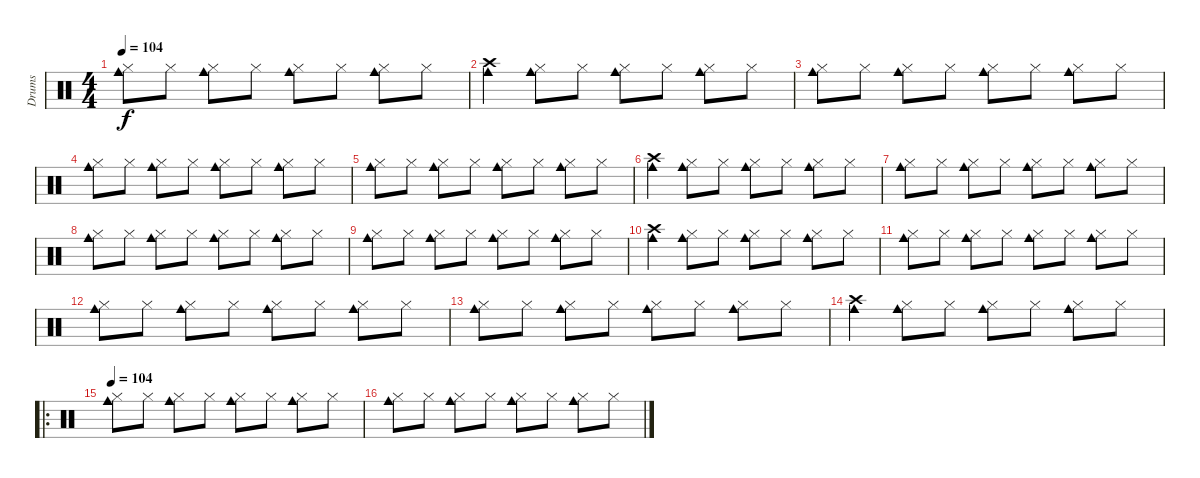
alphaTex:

\track ("Drums" "Drums") {instrument percussion}
\staff {score}
\articulation defaults
\ts (4 4)
\tempo 104
\clef neutral
\ks c
("Cowbell medium (hit)" "Hi-Hat (closed)").8{dy f} "Hi-Hat (closed)".8 ("Cowbell medium (hit)" "Hi-Hat (closed)").8 "Hi-Hat (closed)".8 ("Cowbell medium (hit)" "Hi-Hat (closed)").8 "Hi-Hat (closed)".8 ("Cowbell medium (hit)" "Hi-Hat (closed)").8 "Hi-Hat (closed)".8 |
("Cowbell medium (hit)" "Crash high (hit)").4 ("Cowbell medium (hit)" "Hi-Hat (closed)").8 "Hi-Hat (closed)".8 ("Cowbell medium (hit)" "Hi-Hat (closed)").8 "Hi-Hat (closed)".8 ("Cowbell medium (hit)" "Hi-Hat (closed)").8 "Hi-Hat (closed)".8 |
("Cowbell medium (hit)" "Hi-Hat (closed)").8 "Hi-Hat (closed)".8 ("Cowbell medium (hit)" "Hi-Hat (closed)").8 "Hi-Hat (closed)".8 ("Cowbell medium (hit)" "Hi-Hat (closed)").8 "Hi-Hat (closed)".8 ("Cowbell medium (hit)" "Hi-Hat (closed)").8 "Hi-Hat (closed)".8 |
("Cowbell medium (hit)" "Hi-Hat (closed)").8 "Hi-Hat (closed)".8 ("Cowbell medium (hit)" "Hi-Hat (closed)").8 "Hi-Hat (closed)".8 ("Cowbell medium (hit)" "Hi-Hat (closed)").8 "Hi-Hat (closed)".8 ("Cowbell medium (hit)" "Hi-Hat (closed)").8 "Hi-Hat (closed)".8 |
("Cowbell medium (hit)" "Hi-Hat (closed)").8 "Hi-Hat (closed)".8 ("Cowbell medium (hit)" "Hi-Hat (closed)").8 "Hi-Hat (closed)".8 ("Cowbell medium (hit)" "Hi-Hat (closed)").8 "Hi-Hat (closed)".8 ("Cowbell medium (hit)" "Hi-Hat (closed)").8 "Hi-Hat (closed)".8 |
("Cowbell medium (hit)" "Crash high (hit)").4 ("Cowbell medium (hit)" "Hi-Hat (closed)").8 "Hi-Hat (closed)".8 ("Cowbell medium (hit)" "Hi-Hat (closed)").8 "Hi-Hat (closed)".8 ("Cowbell medium (hit)" "Hi-Hat (closed)").8 "Hi-Hat (closed)".8 |
("Cowbell medium (hit)" "Hi-Hat (closed)").8 "Hi-Hat (closed)".8 ("Cowbell medium (hit)" "Hi-Hat (closed)").8 "Hi-Hat (closed)".8 ("Cowbell medium (hit)" "Hi-Hat (closed)").8 "Hi-Hat (closed)".8 ("Cowbell medium (hit)" "Hi-Hat (closed)").8 "Hi-Hat (closed)".8 |
("Cowbell medium (hit)" "Hi-Hat (closed)").8 "Hi-Hat (closed)".8 ("Cowbell medium (hit)" "Hi-Hat (closed)").8 "Hi-Hat (closed)".8 ("Cowbell medium (hit)" "Hi-Hat (closed)").8 "Hi-Hat (closed)".8 ("Cowbell medium (hit)" "Hi-Hat (closed)").8 "Hi-Hat (closed)".8 |
("Cowbell medium (hit)" "Hi-Hat (closed)").8 "Hi-Hat (closed)".8 ("Cowbell medium (hit)" "Hi-Hat (closed)").8 "Hi-Hat (closed)".8 ("Cowbell medium (hit)" "Hi-Hat (closed)").8 "Hi-Hat (closed)".8 ("Cowbell medium (hit)" "Hi-Hat (closed)").8 "Hi-Hat (closed)".8 |
("Cowbell medium (hit)" "Crash high (hit)").4 ("Cowbell medium (hit)" "Hi-Hat (closed)").8 "Hi-Hat (closed)".8 ("Cowbell medium (hit)" "Hi-Hat (closed)").8 "Hi-Hat (closed)".8 ("Cowbell medium (hit)" "Hi-Hat (closed)").8 "Hi-Hat (closed)".8 |
("Cowbell medium (hit)" "Hi-Hat (closed)").8 "Hi-Hat (closed)".8 ("Cowbell medium (hit)" "Hi-Hat (closed)").8 "Hi-Hat (closed)".8 ("Cowbell medium (hit)" "Hi-Hat (closed)").8 "Hi-Hat (closed)".8 ("Cowbell medium (hit)" "Hi-Hat (closed)").8 "Hi-Hat (closed)".8 |
("Cowbell medium (hit)" "Hi-Hat (closed)").8 "Hi-Hat (closed)".8 ("Cowbell medium (hit)" "Hi-Hat (closed)").8 "Hi-Hat (closed)".8 ("Cowbell medium (hit)" "Hi-Hat (closed)").8 "Hi-Hat (closed)".8 ("Cowbell medium (hit)" "Hi-Hat (closed)").8 "Hi-Hat (closed)".8 |
("Cowbell medium (hit)" "Hi-Hat (closed)").8 "Hi-Hat (closed)".8 ("Cowbell medium (hit)" "Hi-Hat (closed)").8 "Hi-Hat (closed)".8 ("Cowbell medium (hit)" "Hi-Hat (closed)").8 "Hi-Hat (closed)".8 ("Cowbell medium (hit)" "Hi-Hat (closed)").8 "Hi-Hat (closed)".8 |
("Cowbell medium (hit)" "Crash high (hit)").4 ("Cowbell medium (hit)" "Hi-Hat (closed)").8 "Hi-Hat (closed)".8 ("Cowbell medium (hit)" "Hi-Hat (closed)").8 "Hi-Hat (closed)".8 ("Cowbell medium (hit)" "Hi-Hat (closed)").8 "Hi-Hat (closed)".8 |
\ro
\tempo 104
("Cowbell medium (hit)" "Hi-Hat (closed)").8 "Hi-Hat (closed)".8 ("Cowbell medium (hit)" "Hi-Hat (closed)").8 "Hi-Hat (closed)".8 ("Cowbell medium (hit)" "Hi-Hat (closed)").8 "Hi-Hat (closed)".8 ("Cowbell medium (hit)" "Hi-Hat (closed)").8 "Hi-Hat (closed)".8 |
("Cowbell medium (hit)" "Hi-Hat (closed)").8 "Hi-Hat (closed)".8 ("Cowbell medium (hit)" "Hi-Hat (closed)").8 "Hi-Hat (closed)".8 ("Cowbell medium (hit)" "Hi-Hat (closed)").8 "Hi-Hat (closed)".8 ("Cowbell medium (hit)" "Hi-Hat (closed)").8 "Hi-Hat (closed)".8
